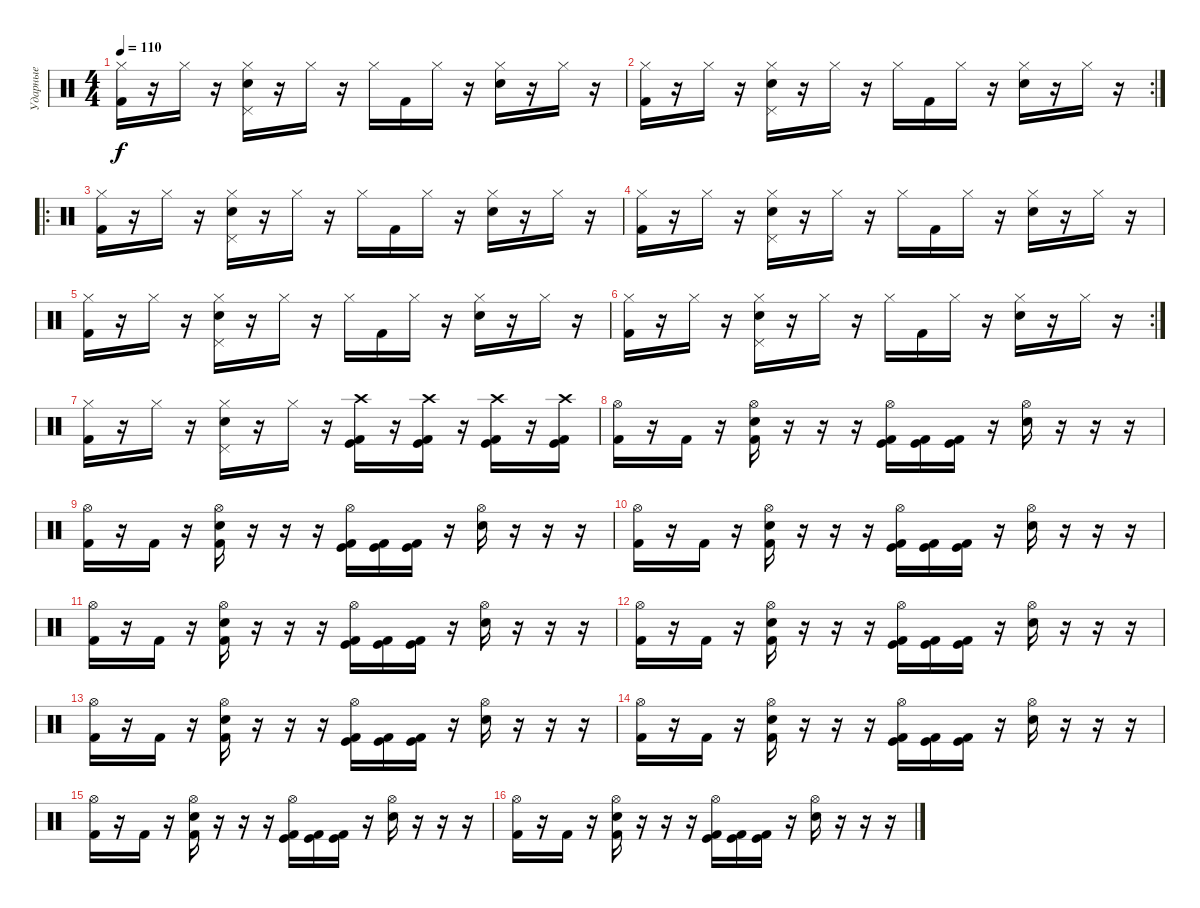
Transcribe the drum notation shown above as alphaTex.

\track ("Ударные" "Ударные") {instrument percussion}
\staff {score}
\articulation defaults
\ts (4 4)
\tempo 110
\clef neutral
\ks c
("Hi-Hat (closed)" "Kick (hit) 2").16{dy f} r.16 "Hi-Hat (closed)".16 r.16 ("Pedal Hi-Hat (hit)" "Hi-Hat (closed)" "Electric Snare (hit)").16 r.16 "Hi-Hat (closed)".16 r.16 "Hi-Hat (closed)".16 "Kick (hit) 2".16 "Hi-Hat (closed)".16 r.16 ("Hi-Hat (closed)" "Electric Snare (hit)").16 r.16 "Hi-Hat (closed)".16 r.16 |
\rc 2
("Hi-Hat (closed)" "Kick (hit) 2").16 r.16 "Hi-Hat (closed)".16 r.16 ("Pedal Hi-Hat (hit)" "Hi-Hat (closed)" "Electric Snare (hit)").16 r.16 "Hi-Hat (closed)".16 r.16 "Hi-Hat (closed)".16 "Kick (hit) 2".16 "Hi-Hat (closed)".16 r.16 ("Hi-Hat (closed)" "Electric Snare (hit)").16 r.16 "Hi-Hat (closed)".16 r.16 |
\ro
("Hi-Hat (closed)" "Kick (hit) 2").16 r.16 "Hi-Hat (closed)".16 r.16 ("Pedal Hi-Hat (hit)" "Hi-Hat (closed)" "Electric Snare (hit)").16 r.16 "Hi-Hat (closed)".16 r.16 "Hi-Hat (closed)".16 "Kick (hit) 2".16 "Hi-Hat (closed)".16 r.16 ("Hi-Hat (closed)" "Electric Snare (hit)").16 r.16 "Hi-Hat (closed)".16 r.16 |
("Hi-Hat (closed)" "Kick (hit) 2").16 r.16 "Hi-Hat (closed)".16 r.16 ("Pedal Hi-Hat (hit)" "Hi-Hat (closed)" "Electric Snare (hit)").16 r.16 "Hi-Hat (closed)".16 r.16 "Hi-Hat (closed)".16 "Kick (hit) 2".16 "Hi-Hat (closed)".16 r.16 ("Hi-Hat (closed)" "Electric Snare (hit)").16 r.16 "Hi-Hat (closed)".16 r.16 |
("Hi-Hat (closed)" "Kick (hit) 2").16 r.16 "Hi-Hat (closed)".16 r.16 ("Pedal Hi-Hat (hit)" "Hi-Hat (closed)" "Electric Snare (hit)").16 r.16 "Hi-Hat (closed)".16 r.16 "Hi-Hat (closed)".16 "Kick (hit) 2".16 "Hi-Hat (closed)".16 r.16 ("Hi-Hat (closed)" "Electric Snare (hit)").16 r.16 "Hi-Hat (closed)".16 r.16 |
\rc 2
("Hi-Hat (closed)" "Kick (hit) 2").16 r.16 "Hi-Hat (closed)".16 r.16 ("Pedal Hi-Hat (hit)" "Hi-Hat (closed)" "Electric Snare (hit)").16 r.16 "Hi-Hat (closed)".16 r.16 "Hi-Hat (closed)".16 "Kick (hit) 2".16 "Hi-Hat (closed)".16 r.16 ("Hi-Hat (closed)" "Electric Snare (hit)").16 r.16 "Hi-Hat (closed)".16 r.16 |
("Hi-Hat (closed)" "Kick (hit) 2").16 r.16 "Hi-Hat (closed)".16 r.16 ("Pedal Hi-Hat (hit)" "Hi-Hat (closed)" "Electric Snare (hit)").16 r.16 "Hi-Hat (closed)".16 r.16 ("Kick (hit)" "Crash high (hit)" "Kick (hit) 2").16 r.16 ("Kick (hit)" "Crash high (hit)" "Kick (hit) 2").16 r.16 ("Kick (hit)" "Crash high (hit)" "Kick (hit) 2").16 r.16 ("Kick (hit)" "Crash high (hit)" "Kick (hit) 2").16 |
("Hi-Hat (open)" "Kick (hit) 2").16 r.16 "Kick (hit) 2".16 r.16 ("Hi-Hat (open)" "Electric Snare (hit)" "Kick (hit) 2").16 r.16 r.16 r.16 ("Hi-Hat (open)" "Kick (hit)" "Kick (hit) 2").16 ("Kick (hit)" "Kick (hit) 2").16 ("Kick (hit)" "Kick (hit) 2").16 r.16 ("Hi-Hat (open)" "Electric Snare (hit)").16 r.16 r.16 r.16 |
("Hi-Hat (open)" "Kick (hit) 2").16 r.16 "Kick (hit) 2".16 r.16 ("Hi-Hat (open)" "Electric Snare (hit)" "Kick (hit) 2").16 r.16 r.16 r.16 ("Hi-Hat (open)" "Kick (hit)" "Kick (hit) 2").16 ("Kick (hit)" "Kick (hit) 2").16 ("Kick (hit)" "Kick (hit) 2").16 r.16 ("Hi-Hat (open)" "Electric Snare (hit)").16 r.16 r.16 r.16 |
("Hi-Hat (open)" "Kick (hit) 2").16 r.16 "Kick (hit) 2".16 r.16 ("Hi-Hat (open)" "Electric Snare (hit)" "Kick (hit) 2").16 r.16 r.16 r.16 ("Hi-Hat (open)" "Kick (hit)" "Kick (hit) 2").16 ("Kick (hit)" "Kick (hit) 2").16 ("Kick (hit)" "Kick (hit) 2").16 r.16 ("Hi-Hat (open)" "Electric Snare (hit)").16 r.16 r.16 r.16 |
("Hi-Hat (open)" "Kick (hit) 2").16 r.16 "Kick (hit) 2".16 r.16 ("Hi-Hat (open)" "Electric Snare (hit)" "Kick (hit) 2").16 r.16 r.16 r.16 ("Hi-Hat (open)" "Kick (hit)" "Kick (hit) 2").16 ("Kick (hit)" "Kick (hit) 2").16 ("Kick (hit)" "Kick (hit) 2").16 r.16 ("Hi-Hat (open)" "Electric Snare (hit)").16 r.16 r.16 r.16 |
("Hi-Hat (open)" "Kick (hit) 2").16 r.16 "Kick (hit) 2".16 r.16 ("Hi-Hat (open)" "Electric Snare (hit)" "Kick (hit) 2").16 r.16 r.16 r.16 ("Hi-Hat (open)" "Kick (hit)" "Kick (hit) 2").16 ("Kick (hit)" "Kick (hit) 2").16 ("Kick (hit)" "Kick (hit) 2").16 r.16 ("Hi-Hat (open)" "Electric Snare (hit)").16 r.16 r.16 r.16 |
("Hi-Hat (open)" "Kick (hit) 2").16 r.16 "Kick (hit) 2".16 r.16 ("Hi-Hat (open)" "Electric Snare (hit)" "Kick (hit) 2").16 r.16 r.16 r.16 ("Hi-Hat (open)" "Kick (hit)" "Kick (hit) 2").16 ("Kick (hit)" "Kick (hit) 2").16 ("Kick (hit)" "Kick (hit) 2").16 r.16 ("Hi-Hat (open)" "Electric Snare (hit)").16 r.16 r.16 r.16 |
("Hi-Hat (open)" "Kick (hit) 2").16 r.16 "Kick (hit) 2".16 r.16 ("Hi-Hat (open)" "Electric Snare (hit)" "Kick (hit) 2").16 r.16 r.16 r.16 ("Hi-Hat (open)" "Kick (hit)" "Kick (hit) 2").16 ("Kick (hit)" "Kick (hit) 2").16 ("Kick (hit)" "Kick (hit) 2").16 r.16 ("Hi-Hat (open)" "Electric Snare (hit)").16 r.16 r.16 r.16 |
("Hi-Hat (open)" "Kick (hit) 2").16 r.16 "Kick (hit) 2".16 r.16 ("Hi-Hat (open)" "Electric Snare (hit)" "Kick (hit) 2").16 r.16 r.16 r.16 ("Hi-Hat (open)" "Kick (hit)" "Kick (hit) 2").16 ("Kick (hit)" "Kick (hit) 2").16 ("Kick (hit)" "Kick (hit) 2").16 r.16 ("Hi-Hat (open)" "Electric Snare (hit)").16 r.16 r.16 r.16 |
("Hi-Hat (open)" "Kick (hit) 2").16 r.16 "Kick (hit) 2".16 r.16 ("Hi-Hat (open)" "Electric Snare (hit)" "Kick (hit) 2").16 r.16 r.16 r.16 ("Hi-Hat (open)" "Kick (hit)" "Kick (hit) 2").16 ("Kick (hit)" "Kick (hit) 2").16 ("Kick (hit)" "Kick (hit) 2").16 r.16 ("Hi-Hat (open)" "Electric Snare (hit)").16 r.16 r.16 r.16
